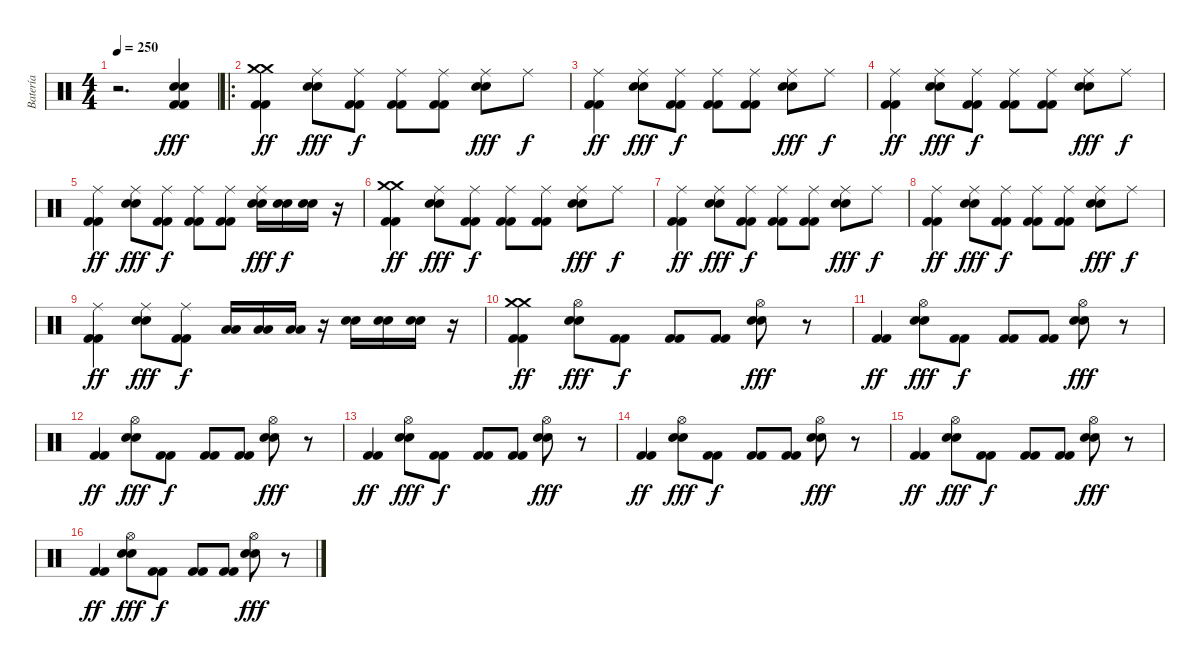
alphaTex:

\track ("Batería" "Batería") {instrument percussion}
\staff {score}
\articulation defaults
\ts (4 4)
\tempo 250
\clef neutral
\ks c
r.2{d dy fff} ("Electric Snare (hit)" "Electric Snare (hit)" "Kick (hit) 2" "Kick (hit) 2").4 |
\ro
("Crash medium (hit)" "Crash medium (hit)" "Kick (hit) 2" "Kick (hit) 2").4{dy ff} ("Ride (middle)" "Electric Snare (hit)" "Electric Snare (hit)").8{dy fff} ("Ride (middle)" "Kick (hit) 2" "Kick (hit) 2").8{dy f} ("Ride (middle)" "Kick (hit) 2" "Kick (hit) 2").8 ("Ride (middle)" "Kick (hit) 2" "Kick (hit) 2").8 ("Ride (middle)" "Electric Snare (hit)" "Electric Snare (hit)").8{dy fff} "Ride (middle)".8{dy f} |
("Ride (middle)" "Kick (hit) 2" "Kick (hit) 2").4{dy ff} ("Ride (middle)" "Electric Snare (hit)" "Electric Snare (hit)").8{dy fff} ("Ride (middle)" "Kick (hit) 2" "Kick (hit) 2").8{dy f} ("Ride (middle)" "Kick (hit) 2" "Kick (hit) 2").8 ("Ride (middle)" "Kick (hit) 2" "Kick (hit) 2").8 ("Ride (middle)" "Electric Snare (hit)" "Electric Snare (hit)").8{dy fff} "Ride (middle)".8{dy f} |
("Ride (middle)" "Kick (hit) 2" "Kick (hit) 2").4{dy ff} ("Ride (middle)" "Electric Snare (hit)" "Electric Snare (hit)").8{dy fff} ("Ride (middle)" "Kick (hit) 2" "Kick (hit) 2").8{dy f} ("Ride (middle)" "Kick (hit) 2" "Kick (hit) 2").8 ("Ride (middle)" "Kick (hit) 2" "Kick (hit) 2").8 ("Ride (middle)" "Electric Snare (hit)" "Electric Snare (hit)").8{dy fff} "Ride (middle)".8{dy f} |
("Ride (middle)" "Kick (hit) 2" "Kick (hit) 2").4{dy ff} ("Ride (middle)" "Electric Snare (hit)" "Electric Snare (hit)").8{dy fff} ("Ride (middle)" "Kick (hit) 2" "Kick (hit) 2").8{dy f} ("Ride (middle)" "Kick (hit) 2" "Kick (hit) 2").8 ("Ride (middle)" "Kick (hit) 2" "Kick (hit) 2").8 ("Ride (middle)" "Electric Snare (hit)" "Electric Snare (hit)").16{dy fff} ("Electric Snare (hit)" "Electric Snare (hit)").16{dy f} ("Electric Snare (hit)" "Electric Snare (hit)").16 r.16 |
("Crash medium (hit)" "Crash medium (hit)" "Kick (hit) 2" "Kick (hit) 2").4{dy ff} ("Ride (middle)" "Electric Snare (hit)" "Electric Snare (hit)").8{dy fff} ("Ride (middle)" "Kick (hit) 2" "Kick (hit) 2").8{dy f} ("Ride (middle)" "Kick (hit) 2" "Kick (hit) 2").8 ("Ride (middle)" "Kick (hit) 2" "Kick (hit) 2").8 ("Ride (middle)" "Electric Snare (hit)" "Electric Snare (hit)").8{dy fff} "Ride (middle)".8{dy f} |
("Ride (middle)" "Kick (hit) 2" "Kick (hit) 2").4{dy ff} ("Ride (middle)" "Electric Snare (hit)" "Electric Snare (hit)").8{dy fff} ("Ride (middle)" "Kick (hit) 2" "Kick (hit) 2").8{dy f} ("Ride (middle)" "Kick (hit) 2" "Kick (hit) 2").8 ("Ride (middle)" "Kick (hit) 2" "Kick (hit) 2").8 ("Ride (middle)" "Electric Snare (hit)" "Electric Snare (hit)").8{dy fff} "Ride (middle)".8{dy f} |
("Ride (middle)" "Kick (hit) 2" "Kick (hit) 2").4{dy ff} ("Ride (middle)" "Electric Snare (hit)" "Electric Snare (hit)").8{dy fff} ("Ride (middle)" "Kick (hit) 2" "Kick (hit) 2").8{dy f} ("Ride (middle)" "Kick (hit) 2" "Kick (hit) 2").8 ("Ride (middle)" "Kick (hit) 2" "Kick (hit) 2").8 ("Ride (middle)" "Electric Snare (hit)" "Electric Snare (hit)").8{dy fff} "Ride (middle)".8{dy f} |
("Ride (middle)" "Kick (hit) 2" "Kick (hit) 2").4{dy ff} ("Ride (middle)" "Electric Snare (hit)" "Electric Snare (hit)").8{dy fff} ("Ride (middle)" "Kick (hit) 2" "Kick (hit) 2").8{dy f} ("Low Tom (hit)" "Low Tom (hit)").16 ("Low Tom (hit)" "Low Tom (hit)").16 ("Low Tom (hit)" "Low Tom (hit)").16 r.16 ("Electric Snare (hit)" "Electric Snare (hit)").16 ("Electric Snare (hit)" "Electric Snare (hit)").16 ("Electric Snare (hit)" "Electric Snare (hit)").16 r.16 |
("Crash medium (hit)" "Crash medium (hit)" "Kick (hit) 2" "Kick (hit) 2").4{dy ff} ("Hi-Hat (open)" "Electric Snare (hit)" "Electric Snare (hit)").8{dy fff} ("Kick (hit) 2" "Kick (hit) 2").8{dy f} ("Kick (hit) 2" "Kick (hit) 2").8 ("Kick (hit) 2" "Kick (hit) 2").8 ("Hi-Hat (open)" "Electric Snare (hit)" "Electric Snare (hit)").8{dy fff} r.8 |
("Kick (hit) 2" "Kick (hit) 2").4{dy ff} ("Hi-Hat (open)" "Electric Snare (hit)" "Electric Snare (hit)").8{dy fff} ("Kick (hit) 2" "Kick (hit) 2").8{dy f} ("Kick (hit) 2" "Kick (hit) 2").8 ("Kick (hit) 2" "Kick (hit) 2").8 ("Hi-Hat (open)" "Electric Snare (hit)" "Electric Snare (hit)").8{dy fff} r.8 |
("Kick (hit) 2" "Kick (hit) 2").4{dy ff} ("Hi-Hat (open)" "Electric Snare (hit)" "Electric Snare (hit)").8{dy fff} ("Kick (hit) 2" "Kick (hit) 2").8{dy f} ("Kick (hit) 2" "Kick (hit) 2").8 ("Kick (hit) 2" "Kick (hit) 2").8 ("Hi-Hat (open)" "Electric Snare (hit)" "Electric Snare (hit)").8{dy fff} r.8 |
("Kick (hit) 2" "Kick (hit) 2").4{dy ff} ("Hi-Hat (open)" "Electric Snare (hit)" "Electric Snare (hit)").8{dy fff} ("Kick (hit) 2" "Kick (hit) 2").8{dy f} ("Kick (hit) 2" "Kick (hit) 2").8 ("Kick (hit) 2" "Kick (hit) 2").8 ("Hi-Hat (open)" "Electric Snare (hit)" "Electric Snare (hit)").8{dy fff} r.8 |
("Kick (hit) 2" "Kick (hit) 2").4{dy ff} ("Hi-Hat (open)" "Electric Snare (hit)" "Electric Snare (hit)").8{dy fff} ("Kick (hit) 2" "Kick (hit) 2").8{dy f} ("Kick (hit) 2" "Kick (hit) 2").8 ("Kick (hit) 2" "Kick (hit) 2").8 ("Hi-Hat (open)" "Electric Snare (hit)" "Electric Snare (hit)").8{dy fff} r.8 |
("Kick (hit) 2" "Kick (hit) 2").4{dy ff} ("Hi-Hat (open)" "Electric Snare (hit)" "Electric Snare (hit)").8{dy fff} ("Kick (hit) 2" "Kick (hit) 2").8{dy f} ("Kick (hit) 2" "Kick (hit) 2").8 ("Kick (hit) 2" "Kick (hit) 2").8 ("Hi-Hat (open)" "Electric Snare (hit)" "Electric Snare (hit)").8{dy fff} r.8 |
("Kick (hit) 2" "Kick (hit) 2").4{dy ff} ("Hi-Hat (open)" "Electric Snare (hit)" "Electric Snare (hit)").8{dy fff} ("Kick (hit) 2" "Kick (hit) 2").8{dy f} ("Kick (hit) 2" "Kick (hit) 2").8 ("Kick (hit) 2" "Kick (hit) 2").8 ("Hi-Hat (open)" "Electric Snare (hit)" "Electric Snare (hit)").8{dy fff} r.8
